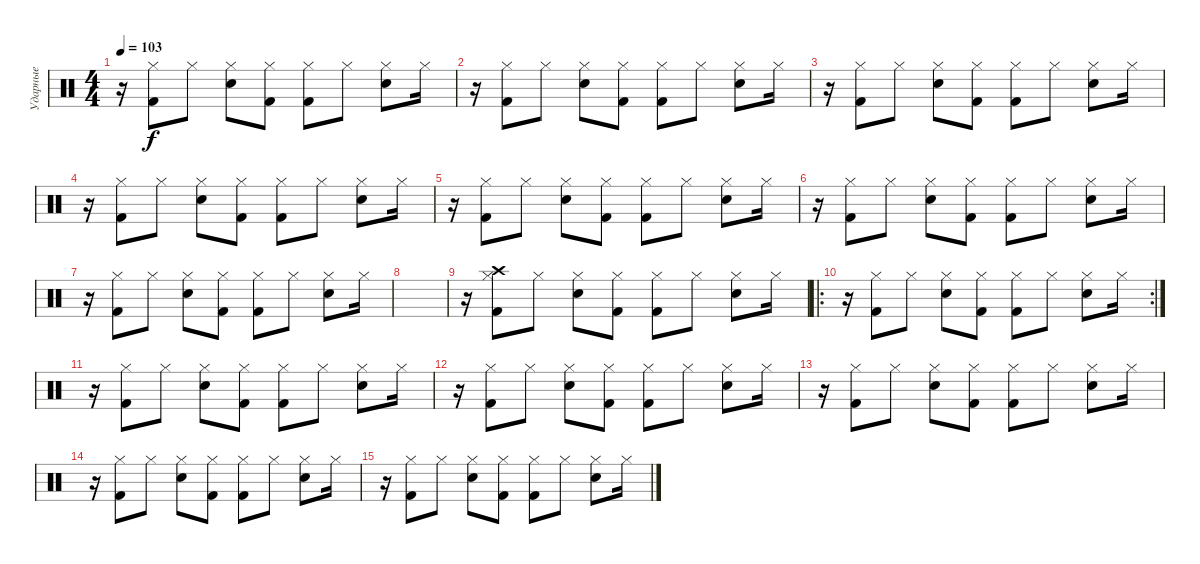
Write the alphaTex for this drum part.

\track ("Ударные" "Ударные") {instrument percussion}
\staff {score}
\articulation defaults
\ts (4 4)
\tempo 103
\clef neutral
\ks c
r.16{dy f} ("Hi-Hat (closed)" "Kick (hit) 2").8 "Hi-Hat (closed)".8 ("Hi-Hat (closed)" "Electric Snare (hit)").8 ("Hi-Hat (closed)" "Kick (hit) 2").8 ("Hi-Hat (closed)" "Kick (hit) 2").8 "Hi-Hat (closed)".8 ("Hi-Hat (closed)" "Electric Snare (hit)").8 "Hi-Hat (closed)".16 |
r.16 ("Hi-Hat (closed)" "Kick (hit) 2").8 "Hi-Hat (closed)".8 ("Hi-Hat (closed)" "Electric Snare (hit)").8 ("Hi-Hat (closed)" "Kick (hit) 2").8 ("Hi-Hat (closed)" "Kick (hit) 2").8 "Hi-Hat (closed)".8 ("Hi-Hat (closed)" "Electric Snare (hit)").8 "Hi-Hat (closed)".16 |
r.16 ("Hi-Hat (closed)" "Kick (hit) 2").8 "Hi-Hat (closed)".8 ("Hi-Hat (closed)" "Electric Snare (hit)").8 ("Hi-Hat (closed)" "Kick (hit) 2").8 ("Hi-Hat (closed)" "Kick (hit) 2").8 "Hi-Hat (closed)".8 ("Hi-Hat (closed)" "Electric Snare (hit)").8 "Hi-Hat (closed)".16 |
r.16 ("Hi-Hat (closed)" "Kick (hit) 2").8 "Hi-Hat (closed)".8 ("Hi-Hat (closed)" "Electric Snare (hit)").8 ("Hi-Hat (closed)" "Kick (hit) 2").8 ("Hi-Hat (closed)" "Kick (hit) 2").8 "Hi-Hat (closed)".8 ("Hi-Hat (closed)" "Electric Snare (hit)").8 "Hi-Hat (closed)".16 |
r.16 ("Hi-Hat (closed)" "Kick (hit) 2").8 "Hi-Hat (closed)".8 ("Hi-Hat (closed)" "Electric Snare (hit)").8 ("Hi-Hat (closed)" "Kick (hit) 2").8 ("Hi-Hat (closed)" "Kick (hit) 2").8 "Hi-Hat (closed)".8 ("Hi-Hat (closed)" "Electric Snare (hit)").8 "Hi-Hat (closed)".16 |
r.16 ("Hi-Hat (closed)" "Kick (hit) 2").8 "Hi-Hat (closed)".8 ("Hi-Hat (closed)" "Electric Snare (hit)").8 ("Hi-Hat (closed)" "Kick (hit) 2").8 ("Hi-Hat (closed)" "Kick (hit) 2").8 "Hi-Hat (closed)".8 ("Hi-Hat (closed)" "Electric Snare (hit)").8 "Hi-Hat (closed)".16 |
r.16 ("Hi-Hat (closed)" "Kick (hit) 2").8 "Hi-Hat (closed)".8 ("Hi-Hat (closed)" "Electric Snare (hit)").8 ("Hi-Hat (closed)" "Kick (hit) 2").8 ("Hi-Hat (closed)" "Kick (hit) 2").8 "Hi-Hat (closed)".8 ("Hi-Hat (closed)" "Electric Snare (hit)").8 "Hi-Hat (closed)".16 |
|
r.16 ("Hi-Hat (closed)" "Kick (hit) 2" "Crash high (hit)").8 "Hi-Hat (closed)".8 ("Hi-Hat (closed)" "Electric Snare (hit)").8 ("Hi-Hat (closed)" "Kick (hit) 2").8 ("Hi-Hat (closed)" "Kick (hit) 2").8 "Hi-Hat (closed)".8 ("Hi-Hat (closed)" "Electric Snare (hit)").8 "Hi-Hat (closed)".16 |
\ro
\rc 2
r.16 ("Hi-Hat (closed)" "Kick (hit) 2").8 "Hi-Hat (closed)".8 ("Hi-Hat (closed)" "Electric Snare (hit)").8 ("Hi-Hat (closed)" "Kick (hit) 2").8 ("Hi-Hat (closed)" "Kick (hit) 2").8 "Hi-Hat (closed)".8 ("Hi-Hat (closed)" "Electric Snare (hit)").8 "Hi-Hat (closed)".16 |
r.16 ("Hi-Hat (closed)" "Kick (hit) 2").8 "Hi-Hat (closed)".8 ("Hi-Hat (closed)" "Electric Snare (hit)").8 ("Hi-Hat (closed)" "Kick (hit) 2").8 ("Hi-Hat (closed)" "Kick (hit) 2").8 "Hi-Hat (closed)".8 ("Hi-Hat (closed)" "Electric Snare (hit)").8 "Hi-Hat (closed)".16 |
r.16 ("Hi-Hat (closed)" "Kick (hit) 2").8 "Hi-Hat (closed)".8 ("Hi-Hat (closed)" "Electric Snare (hit)").8 ("Hi-Hat (closed)" "Kick (hit) 2").8 ("Hi-Hat (closed)" "Kick (hit) 2").8 "Hi-Hat (closed)".8 ("Hi-Hat (closed)" "Electric Snare (hit)").8 "Hi-Hat (closed)".16 |
r.16 ("Hi-Hat (closed)" "Kick (hit) 2").8 "Hi-Hat (closed)".8 ("Hi-Hat (closed)" "Electric Snare (hit)").8 ("Hi-Hat (closed)" "Kick (hit) 2").8 ("Hi-Hat (closed)" "Kick (hit) 2").8 "Hi-Hat (closed)".8 ("Hi-Hat (closed)" "Electric Snare (hit)").8 "Hi-Hat (closed)".16 |
r.16 ("Hi-Hat (closed)" "Kick (hit) 2").8 "Hi-Hat (closed)".8 ("Hi-Hat (closed)" "Electric Snare (hit)").8 ("Hi-Hat (closed)" "Kick (hit) 2").8 ("Hi-Hat (closed)" "Kick (hit) 2").8 "Hi-Hat (closed)".8 ("Hi-Hat (closed)" "Electric Snare (hit)").8 "Hi-Hat (closed)".16 |
r.16 ("Hi-Hat (closed)" "Kick (hit) 2").8 "Hi-Hat (closed)".8 ("Hi-Hat (closed)" "Electric Snare (hit)").8 ("Hi-Hat (closed)" "Kick (hit) 2").8 ("Hi-Hat (closed)" "Kick (hit) 2").8 "Hi-Hat (closed)".8 ("Hi-Hat (closed)" "Electric Snare (hit)").8 "Hi-Hat (closed)".16
